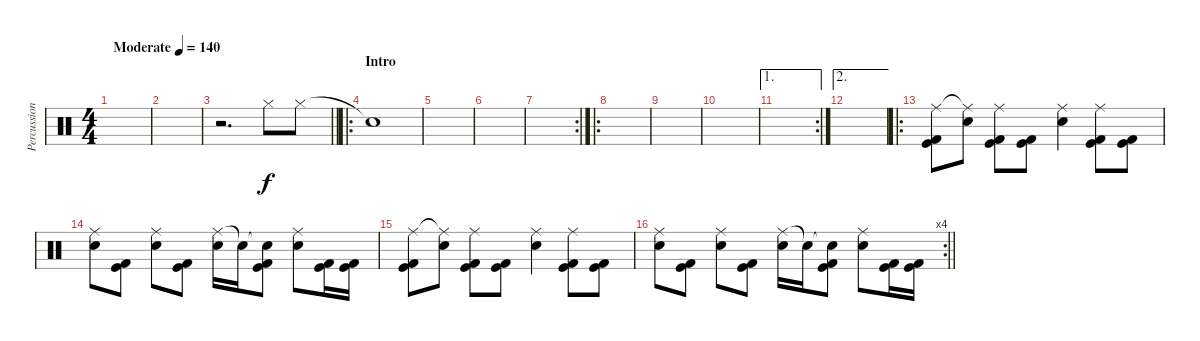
\track ("Percussion" "Percussion") {instrument percussion}
\staff {score}
\articulation defaults
\ts (4 4)
\tempo (140 "Moderate")
\clef neutral
\ks c
|
|
\barLineRight lightlight
r.2{d} "Hi-Hat (closed)".8 "Hi-Hat (closed)".8 |
\ro
\section ("" "Intro")
"Snare (hit)"{t}.1 |
|
|
\rc 2
|
\ro
|
|
|
\ae 1
\rc 2
|
\ae 2
|
\ro
("Ride (middle)" "Kick (hit) 2" "Kick (hit)").8 ("Ride (middle)"{t} "Electric Snare (hit)").8 ("Ride (middle)" "Kick (hit) 2" "Kick (hit)").8 ("Kick (hit) 2" "Kick (hit)").8 ("Ride (middle)" "Electric Snare (hit)").4 ("Ride (middle)" "Kick (hit) 2" "Kick (hit)").8 ("Kick (hit)" "Kick (hit) 2").8 |
("Ride (middle)" "Electric Snare (hit)").8 ("Kick (hit)" "Kick (hit) 2").8 ("Ride (middle)" "Electric Snare (hit)").8 ("Kick (hit)" "Kick (hit) 2").8 ("Ride (middle)" "Electric Snare (hit)").16 "Snare (hit)"{t}.16 ("Snare (hit)"{t} "Kick (hit)" "Kick (hit) 2").8 ("Ride (middle)" "Electric Snare (hit)").8 ("Kick (hit) 2" "Kick (hit)").16 ("Kick (hit) 2" "Kick (hit)").16 |
("Ride (middle)" "Kick (hit) 2" "Kick (hit)").8 ("Ride (middle)"{t} "Electric Snare (hit)").8 ("Ride (middle)" "Kick (hit) 2" "Kick (hit)").8 ("Kick (hit) 2" "Kick (hit)").8 ("Ride (middle)" "Electric Snare (hit)").4 ("Ride (middle)" "Kick (hit) 2" "Kick (hit)").8 ("Kick (hit)" "Kick (hit) 2").8 |
\rc 4
\barLineRight lightlight
("Ride (middle)" "Electric Snare (hit)").8 ("Kick (hit)" "Kick (hit) 2").8 ("Ride (middle)" "Electric Snare (hit)").8 ("Kick (hit)" "Kick (hit) 2").8 ("Ride (middle)" "Electric Snare (hit)").16 "Snare (hit)"{t}.16 ("Snare (hit)"{t} "Kick (hit)" "Kick (hit) 2").8 ("Ride (middle)" "Electric Snare (hit)").8 ("Kick (hit) 2" "Kick (hit)").16 ("Kick (hit) 2" "Kick (hit)").16
